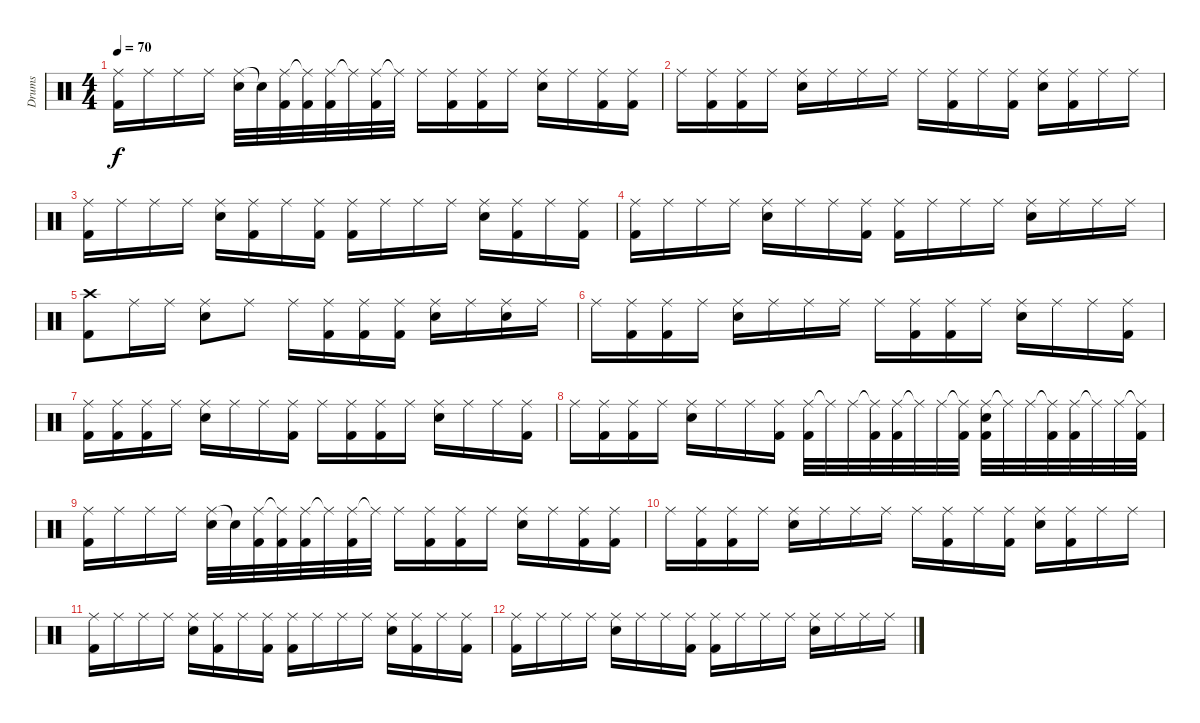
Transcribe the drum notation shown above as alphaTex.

\track ("Drums" "Drums") {instrument percussion}
\staff {score}
\articulation defaults
\ts (4 4)
\tempo 70
\clef neutral
\ks c
("Ride (middle)" "Kick (hit) 2").16{dy f} "Ride (middle)".16 "Ride (middle)".16 "Ride (middle)".16 ("Ride (middle)" "Snare (hit) 2").32 "Snare (hit)"{t}.32 ("Ride (middle)" "Kick (hit) 2").32 ("Ride (middle)"{t} "Kick (hit) 2").32 ("Ride (middle)" "Kick (hit) 2").32 "Ride (middle)"{t}.32 ("Ride (middle)" "Kick (hit) 2").32 "Ride (middle)"{t}.32 "Ride (middle)".16 ("Ride (middle)" "Kick (hit) 2").16 ("Ride (middle)" "Kick (hit) 2").16 "Ride (middle)".16 ("Ride (middle)" "Snare (hit) 2").16 "Ride (middle)".16 ("Ride (middle)" "Kick (hit) 2").16 ("Ride (middle)" "Kick (hit) 2").16 |
"Ride (middle)".16 ("Ride (middle)" "Kick (hit) 2").16 ("Ride (middle)" "Kick (hit) 2").16 "Ride (middle)".16 ("Ride (middle)" "Snare (hit) 2").16 "Ride (middle)".16 "Ride (middle)".16 "Ride (middle)".16 "Ride (middle)".16 ("Ride (middle)" "Kick (hit) 2").16 "Ride (middle)".16 ("Ride (middle)" "Kick (hit) 2").16 ("Ride (middle)" "Snare (hit) 2").16 ("Ride (middle)" "Kick (hit) 2").16 "Ride (middle)".16 "Ride (middle)".16 |
("Ride (middle)" "Kick (hit) 2").16 "Ride (middle)".16 "Ride (middle)".16 "Ride (middle)".16 ("Ride (middle)" "Snare (hit) 2").16 ("Ride (middle)" "Kick (hit) 2").16 "Ride (middle)".16 ("Ride (middle)" "Kick (hit) 2").16 ("Ride (middle)" "Kick (hit) 2").16 "Ride (middle)".16 "Ride (middle)".16 "Ride (middle)".16 ("Ride (middle)" "Snare (hit) 2").16 ("Ride (middle)" "Kick (hit) 2").16 "Ride (middle)".16 ("Ride (middle)" "Kick (hit) 2").16 |
("Ride (middle)" "Kick (hit) 2").16 "Ride (middle)".16 "Ride (middle)".16 "Ride (middle)".16 ("Ride (middle)" "Snare (hit) 2").16 "Ride (middle)".16 "Ride (middle)".16 ("Ride (middle)" "Kick (hit) 2").16 ("Ride (middle)" "Kick (hit) 2").16 "Ride (middle)".16 "Ride (middle)".16 "Ride (middle)".16 ("Ride (middle)" "Snare (hit) 2").16 "Ride (middle)".16 "Ride (middle)".16 "Ride (middle)".16 |
("Crash high (hit)" "Kick (hit) 2").8 "Ride (middle)".16 "Ride (middle)".16 ("Ride (middle)" "Snare (hit) 2").8 "Ride (middle)".8 "Ride (middle)".16 ("Ride (middle)" "Kick (hit) 2").16 ("Ride (middle)" "Kick (hit) 2").16 ("Ride (middle)" "Kick (hit) 2").16 ("Ride (middle)" "Snare (hit) 2").16 "Ride (middle)".16 ("Ride (middle)" "Snare (hit) 2").16 "Ride (middle)".16 |
"Ride (middle)".16 ("Ride (middle)" "Kick (hit) 2").16 ("Ride (middle)" "Kick (hit) 2").16 "Ride (middle)".16 ("Ride (middle)" "Snare (hit) 2").16 "Ride (middle)".16 "Ride (middle)".16 "Ride (middle)".16 "Ride (middle)".16 ("Ride (middle)" "Kick (hit) 2").16 ("Ride (middle)" "Kick (hit) 2").16 "Ride (middle)".16 ("Ride (middle)" "Snare (hit) 2").16 "Ride (middle)".16 "Ride (middle)".16 ("Ride (middle)" "Kick (hit) 2").16 |
("Ride (middle)" "Kick (hit) 2").16 ("Ride (middle)" "Kick (hit) 2").16 ("Ride (middle)" "Kick (hit) 2").16 "Ride (middle)".16 ("Ride (middle)" "Snare (hit) 2").16 "Ride (middle)".16 "Ride (middle)".16 ("Ride (middle)" "Kick (hit) 2").16 "Ride (middle)".16 ("Ride (middle)" "Kick (hit) 2").16 ("Ride (middle)" "Kick (hit) 2").16 "Ride (middle)".16 ("Ride (middle)" "Snare (hit) 2").16 "Ride (middle)".16 "Ride (middle)".16 ("Ride (middle)" "Kick (hit) 2").16 |
"Ride (middle)".16 ("Ride (middle)" "Kick (hit) 2").16 ("Ride (middle)" "Kick (hit) 2").16 "Ride (middle)".16 ("Ride (middle)" "Snare (hit) 2").16 "Ride (middle)".16 "Ride (middle)".16 ("Ride (middle)" "Kick (hit) 2").16 ("Ride (middle)" "Kick (hit) 2").32 "Ride (middle)"{t}.32 "Ride (middle)".32 ("Ride (middle)"{t} "Kick (hit) 2").32 ("Ride (middle)" "Kick (hit) 2").32 "Ride (middle)"{t}.32 "Ride (middle)".32 ("Ride (middle)"{t} "Kick (hit) 2").32 ("Ride (middle)" "Snare (hit) 2" "Kick (hit) 2").32 "Ride (middle)"{t}.32 "Ride (middle)".32 ("Ride (middle)"{t} "Kick (hit) 2").32 ("Ride (middle)" "Kick (hit) 2").32 "Ride (middle)"{t}.32 "Ride (middle)".32 ("Ride (middle)"{t} "Kick (hit) 2").32 |
("Ride (middle)" "Kick (hit) 2").16 "Ride (middle)".16 "Ride (middle)".16 "Ride (middle)".16 ("Ride (middle)" "Snare (hit) 2").32 "Snare (hit)"{t}.32 ("Ride (middle)" "Kick (hit) 2").32 ("Ride (middle)"{t} "Kick (hit) 2").32 ("Ride (middle)" "Kick (hit) 2").32 "Ride (middle)"{t}.32 ("Ride (middle)" "Kick (hit) 2").32 "Ride (middle)"{t}.32 "Ride (middle)".16 ("Ride (middle)" "Kick (hit) 2").16 ("Ride (middle)" "Kick (hit) 2").16 "Ride (middle)".16 ("Ride (middle)" "Snare (hit) 2").16 "Ride (middle)".16 ("Ride (middle)" "Kick (hit) 2").16 ("Ride (middle)" "Kick (hit) 2").16 |
"Ride (middle)".16 ("Ride (middle)" "Kick (hit) 2").16 ("Ride (middle)" "Kick (hit) 2").16 "Ride (middle)".16 ("Ride (middle)" "Snare (hit) 2").16 "Ride (middle)".16 "Ride (middle)".16 "Ride (middle)".16 "Ride (middle)".16 ("Ride (middle)" "Kick (hit) 2").16 "Ride (middle)".16 ("Ride (middle)" "Kick (hit) 2").16 ("Ride (middle)" "Snare (hit) 2").16 ("Ride (middle)" "Kick (hit) 2").16 "Ride (middle)".16 "Ride (middle)".16 |
("Ride (middle)" "Kick (hit) 2").16 "Ride (middle)".16 "Ride (middle)".16 "Ride (middle)".16 ("Ride (middle)" "Snare (hit) 2").16 ("Ride (middle)" "Kick (hit) 2").16 "Ride (middle)".16 ("Ride (middle)" "Kick (hit) 2").16 ("Ride (middle)" "Kick (hit) 2").16 "Ride (middle)".16 "Ride (middle)".16 "Ride (middle)".16 ("Ride (middle)" "Snare (hit) 2").16 ("Ride (middle)" "Kick (hit) 2").16 "Ride (middle)".16 ("Ride (middle)" "Kick (hit) 2").16 |
("Ride (middle)" "Kick (hit) 2").16 "Ride (middle)".16 "Ride (middle)".16 "Ride (middle)".16 ("Ride (middle)" "Snare (hit) 2").16 "Ride (middle)".16 "Ride (middle)".16 ("Ride (middle)" "Kick (hit) 2").16 ("Ride (middle)" "Kick (hit) 2").16 "Ride (middle)".16 "Ride (middle)".16 "Ride (middle)".16 ("Ride (middle)" "Snare (hit) 2").16 "Ride (middle)".16 "Ride (middle)".16 "Ride (middle)".16
